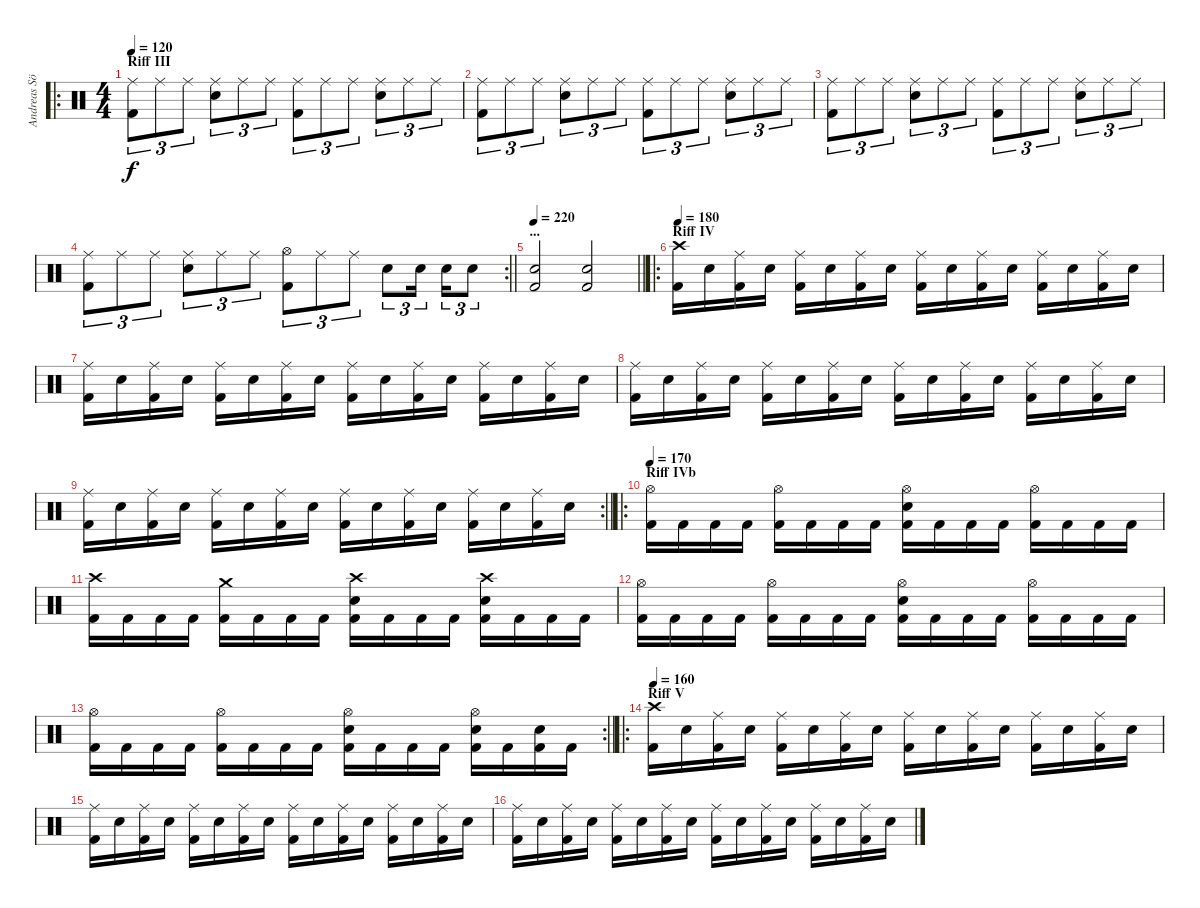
\track ("Andreas Söderlund" "Andreas Sö") {instrument percussion}
\staff {score}
\articulation defaults
\ro
\ts (4 4)
\section ("" "Riff III")
\tempo 120
\clef neutral
\ks c
("Ride (middle)" "Kick (hit) 2").8{tu (3 2) dy f} "Ride (middle)".8{tu (3 2)} "Ride (middle)".8{tu (3 2)} ("Ride (middle)" "Electric Snare (hit)").8{tu (3 2)} "Ride (middle)".8{tu (3 2)} "Ride (middle)".8{tu (3 2)} ("Ride (middle)" "Kick (hit) 2").8{tu (3 2)} "Ride (middle)".8{tu (3 2)} "Ride (middle)".8{tu (3 2)} ("Ride (middle)" "Electric Snare (hit)").8{tu (3 2)} "Ride (middle)".8{tu (3 2)} "Ride (middle)".8{tu (3 2)} |
("Ride (middle)" "Kick (hit) 2").8{tu (3 2)} "Ride (middle)".8{tu (3 2)} "Ride (middle)".8{tu (3 2)} ("Ride (middle)" "Electric Snare (hit)").8{tu (3 2)} "Ride (middle)".8{tu (3 2)} "Ride (middle)".8{tu (3 2)} ("Ride (middle)" "Kick (hit) 2").8{tu (3 2)} "Ride (middle)".8{tu (3 2)} "Ride (middle)".8{tu (3 2)} ("Ride (middle)" "Electric Snare (hit)").8{tu (3 2)} "Ride (middle)".8{tu (3 2)} "Ride (middle)".8{tu (3 2)} |
("Ride (middle)" "Kick (hit) 2").8{tu (3 2)} "Ride (middle)".8{tu (3 2)} "Ride (middle)".8{tu (3 2)} ("Ride (middle)" "Electric Snare (hit)").8{tu (3 2)} "Ride (middle)".8{tu (3 2)} "Ride (middle)".8{tu (3 2)} ("Ride (middle)" "Kick (hit) 2").8{tu (3 2)} "Ride (middle)".8{tu (3 2)} "Ride (middle)".8{tu (3 2)} ("Ride (middle)" "Electric Snare (hit)").8{tu (3 2)} "Ride (middle)".8{tu (3 2)} "Ride (middle)".8{tu (3 2)} |
\rc 2
\barLineRight lightlight
("Ride (middle)" "Kick (hit) 2").8{tu (3 2)} "Ride (middle)".8{tu (3 2)} "Ride (middle)".8{tu (3 2)} ("Ride (middle)" "Electric Snare (hit)").8{tu (3 2)} "Ride (middle)".8{tu (3 2)} "Ride (middle)".8{tu (3 2)} ("Hi-Hat (open)" "Kick (hit) 2").8{tu (3 2)} "Ride (middle)".8{tu (3 2)} "Ride (middle)".8{tu (3 2)} "Electric Snare (hit)".8{tu (3 2)} "Electric Snare (hit)".16{tu (3 2) beam splitsecondary} "Electric Snare (hit)".16{tu (3 2)} "Electric Snare (hit)".8{tu (3 2)} |
\section ("" "...")
\tempo 220
\barLineRight lightlight
("Electric Snare (hit)" "Kick (hit) 2").2 ("Electric Snare (hit)" "Kick (hit) 2").2 |
\ro
\section ("" "Riff IV")
\tempo 180
("Crash high (hit)" "Kick (hit) 2").16 "Electric Snare (hit)".16 ("Ride (middle)" "Kick (hit) 2").16 "Electric Snare (hit)".16 ("Ride (middle)" "Kick (hit) 2").16 "Electric Snare (hit)".16 ("Ride (middle)" "Kick (hit) 2").16 "Electric Snare (hit)".16 ("Ride (middle)" "Kick (hit) 2").16 "Electric Snare (hit)".16 ("Ride (middle)" "Kick (hit) 2").16 "Electric Snare (hit)".16 ("Ride (middle)" "Kick (hit) 2").16 "Electric Snare (hit)".16 ("Ride (middle)" "Kick (hit) 2").16 "Electric Snare (hit)".16 |
("Ride (middle)" "Kick (hit) 2").16 "Electric Snare (hit)".16 ("Ride (middle)" "Kick (hit) 2").16 "Electric Snare (hit)".16 ("Ride (middle)" "Kick (hit) 2").16 "Electric Snare (hit)".16 ("Ride (middle)" "Kick (hit) 2").16 "Electric Snare (hit)".16 ("Ride (middle)" "Kick (hit) 2").16 "Electric Snare (hit)".16 ("Ride (middle)" "Kick (hit) 2").16 "Electric Snare (hit)".16 ("Ride (middle)" "Kick (hit) 2").16 "Electric Snare (hit)".16 ("Ride (middle)" "Kick (hit) 2").16 "Electric Snare (hit)".16 |
("Ride (middle)" "Kick (hit) 2").16 "Electric Snare (hit)".16 ("Ride (middle)" "Kick (hit) 2").16 "Electric Snare (hit)".16 ("Ride (middle)" "Kick (hit) 2").16 "Electric Snare (hit)".16 ("Ride (middle)" "Kick (hit) 2").16 "Electric Snare (hit)".16 ("Ride (middle)" "Kick (hit) 2").16 "Electric Snare (hit)".16 ("Ride (middle)" "Kick (hit) 2").16 "Electric Snare (hit)".16 ("Ride (middle)" "Kick (hit) 2").16 "Electric Snare (hit)".16 ("Ride (middle)" "Kick (hit) 2").16 "Electric Snare (hit)".16 |
\rc 2
\barLineRight lightlight
("Ride (middle)" "Kick (hit) 2").16 "Electric Snare (hit)".16 ("Ride (middle)" "Kick (hit) 2").16 "Electric Snare (hit)".16 ("Ride (middle)" "Kick (hit) 2").16 "Electric Snare (hit)".16 ("Ride (middle)" "Kick (hit) 2").16 "Electric Snare (hit)".16 ("Ride (middle)" "Kick (hit) 2").16 "Electric Snare (hit)".16 ("Ride (middle)" "Kick (hit) 2").16 "Electric Snare (hit)".16 ("Ride (middle)" "Kick (hit) 2").16 "Electric Snare (hit)".16 ("Ride (middle)" "Kick (hit) 2").16 "Electric Snare (hit)".16 |
\ro
\section ("" "Riff IVb")
\tempo 170
("Hi-Hat (open)" "Kick (hit) 2").16 "Kick (hit) 2".16 "Kick (hit) 2".16 "Kick (hit) 2".16 ("Hi-Hat (open)" "Kick (hit) 2").16 "Kick (hit) 2".16 "Kick (hit) 2".16 "Kick (hit) 2".16 ("Hi-Hat (open)" "Electric Snare (hit)" "Kick (hit) 2").16 "Kick (hit) 2".16 "Kick (hit) 2".16 "Kick (hit) 2".16 ("Hi-Hat (open)" "Kick (hit) 2").16 "Kick (hit) 2".16 "Kick (hit) 2".16 "Kick (hit) 2".16 |
("Crash high (hit)" "Kick (hit) 2").16 "Kick (hit) 2".16 "Kick (hit) 2".16 "Kick (hit) 2".16 ("Crash medium (hit)" "Kick (hit) 2").16 "Kick (hit) 2".16 "Kick (hit) 2".16 "Kick (hit) 2".16 ("Crash high (hit)" "Electric Snare (hit)" "Kick (hit) 2").16 "Kick (hit) 2".16 "Kick (hit) 2".16 "Kick (hit) 2".16 ("Crash high (hit)" "Electric Snare (hit)" "Kick (hit) 2").16 "Kick (hit) 2".16 "Kick (hit) 2".16 "Kick (hit) 2".16 |
("Hi-Hat (open)" "Kick (hit) 2").16 "Kick (hit) 2".16 "Kick (hit) 2".16 "Kick (hit) 2".16 ("Hi-Hat (open)" "Kick (hit) 2").16 "Kick (hit) 2".16 "Kick (hit) 2".16 "Kick (hit) 2".16 ("Hi-Hat (open)" "Electric Snare (hit)" "Kick (hit) 2").16 "Kick (hit) 2".16 "Kick (hit) 2".16 "Kick (hit) 2".16 ("Hi-Hat (open)" "Kick (hit) 2").16 "Kick (hit) 2".16 "Kick (hit) 2".16 "Kick (hit) 2".16 |
\rc 2
\barLineRight lightlight
("Hi-Hat (open)" "Kick (hit) 2").16 "Kick (hit) 2".16 "Kick (hit) 2".16 "Kick (hit) 2".16 ("Hi-Hat (open)" "Kick (hit) 2").16 "Kick (hit) 2".16 "Kick (hit) 2".16 "Kick (hit) 2".16 ("Hi-Hat (open)" "Electric Snare (hit)" "Kick (hit) 2").16 "Kick (hit) 2".16 "Kick (hit) 2".16 "Kick (hit) 2".16 ("Hi-Hat (open)" "Electric Snare (hit)" "Kick (hit) 2").16 "Kick (hit) 2".16 ("Electric Snare (hit)" "Kick (hit) 2").16 "Kick (hit) 2".16 |
\ro
\section ("" "Riff V")
\tempo 160
("Crash high (hit)" "Kick (hit) 2").16 "Electric Snare (hit)".16 ("Ride (middle)" "Kick (hit) 2").16 "Electric Snare (hit)".16 ("Ride (middle)" "Kick (hit) 2").16 "Electric Snare (hit)".16 ("Ride (middle)" "Kick (hit) 2").16 "Electric Snare (hit)".16 ("Ride (middle)" "Kick (hit) 2").16 "Electric Snare (hit)".16 ("Ride (middle)" "Kick (hit) 2").16 "Electric Snare (hit)".16 ("Ride (middle)" "Kick (hit) 2").16 "Electric Snare (hit)".16 ("Ride (middle)" "Kick (hit) 2").16 "Electric Snare (hit)".16 |
("Ride (middle)" "Kick (hit) 2").16 "Electric Snare (hit)".16 ("Ride (middle)" "Kick (hit) 2").16 "Electric Snare (hit)".16 ("Ride (middle)" "Kick (hit) 2").16 "Electric Snare (hit)".16 ("Ride (middle)" "Kick (hit) 2").16 "Electric Snare (hit)".16 ("Ride (middle)" "Kick (hit) 2").16 "Electric Snare (hit)".16 ("Ride (middle)" "Kick (hit) 2").16 "Electric Snare (hit)".16 ("Ride (middle)" "Kick (hit) 2").16 "Electric Snare (hit)".16 ("Ride (middle)" "Kick (hit) 2").16 "Electric Snare (hit)".16 |
("Ride (middle)" "Kick (hit) 2").16 "Electric Snare (hit)".16 ("Ride (middle)" "Kick (hit) 2").16 "Electric Snare (hit)".16 ("Ride (middle)" "Kick (hit) 2").16 "Electric Snare (hit)".16 ("Ride (middle)" "Kick (hit) 2").16 "Electric Snare (hit)".16 ("Ride (middle)" "Kick (hit) 2").16 "Electric Snare (hit)".16 ("Ride (middle)" "Kick (hit) 2").16 "Electric Snare (hit)".16 ("Ride (middle)" "Kick (hit) 2").16 "Electric Snare (hit)".16 ("Ride (middle)" "Kick (hit) 2").16 "Electric Snare (hit)".16
